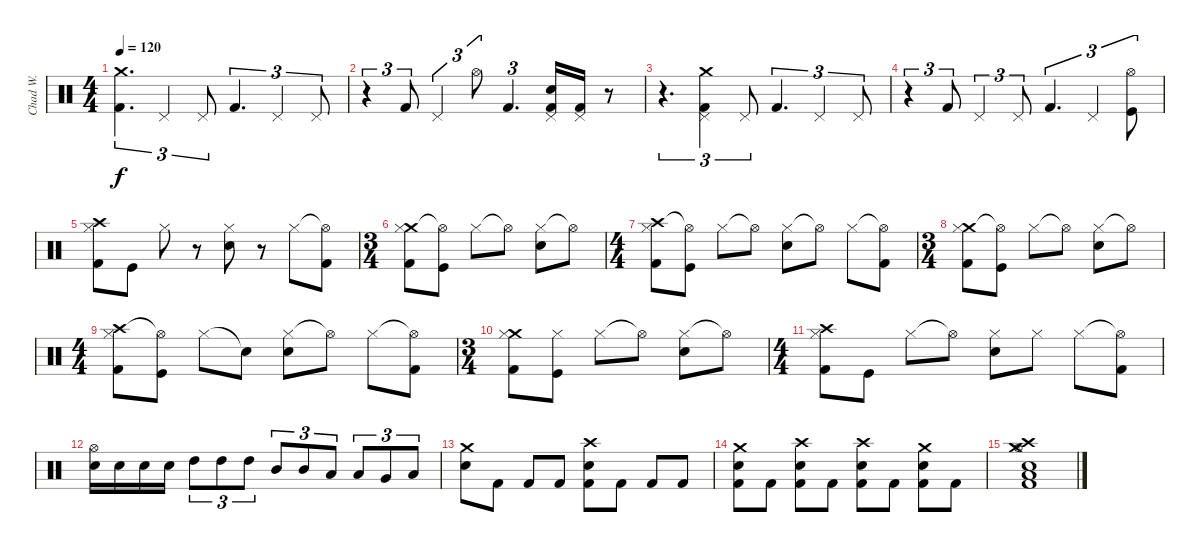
\track ("Chad W." "Chad W.") {instrument percussion bank 177}
\staff {score}
\articulation defaults
\ts (4 4)
\tempo 120
\clef neutral
\ks c
("Crash medium (hit)" "Kick (hit) 2").4{d tu (3 2) dy f} "Pedal Hi-Hat (hit)".4{tu (3 2)} "Pedal Hi-Hat (hit)".8{tu (3 2)} "Kick (hit) 2".4{d tu (3 2)} "Pedal Hi-Hat (hit)".4{tu (3 2)} "Pedal Hi-Hat (hit)".8{tu (3 2)} |
r.4{tu (3 2)} "Kick (hit) 2".8{tu (3 2)} "Pedal Hi-Hat (hit)".4{tu (3 2)} "Hi-Hat (open)".8{tu (3 2)} "Kick (hit) 2".4{d tu (3 2)} ("Pedal Hi-Hat (hit)" "Electric Snare (hit)" "Kick (hit) 2").16 ("Pedal Hi-Hat (hit)" "Kick (hit) 2").16 r.8 |
r.4{d tu (3 2)} ("Crash medium (hit)" "Pedal Hi-Hat (hit)" "Kick (hit) 2").4{tu (3 2)} "Pedal Hi-Hat (hit)".8{tu (3 2)} "Kick (hit) 2".4{d tu (3 2)} "Pedal Hi-Hat (hit)".4{tu (3 2)} "Pedal Hi-Hat (hit)".8{tu (3 2)} |
r.4{tu (3 2)} "Kick (hit) 2".8{tu (3 2)} "Pedal Hi-Hat (hit)".4{tu (3 2)} "Pedal Hi-Hat (hit)".8{tu (3 2)} "Kick (hit) 2".4{d tu (3 2)} "Pedal Hi-Hat (hit)".4{tu (3 2)} ("Hi-Hat (open)" "Kick (hit)").8{tu (3 2)} |
("Crash high (hit)" "Hi-Hat (closed)" "Kick (hit) 2").8 "Kick (hit)".8 "Hi-Hat (closed)".8 r.8 ("Hi-Hat (closed)" "Electric Snare (hit)").8 r.8 "Hi-Hat (closed)".8 ("Hi-Hat (open)"{t} "Kick (hit) 2").8 |
\ts (3 4)
("Crash medium (hit)" "Hi-Hat (closed)" "Kick (hit) 2").8 ("Hi-Hat (open)"{t} "Kick (hit)").8 "Hi-Hat (closed)".8 "Hi-Hat (open)"{t}.8 ("Hi-Hat (closed)" "Electric Snare (hit)").8 "Hi-Hat (open)"{t}.8 |
\ts (4 4)
("Crash high (hit)" "Hi-Hat (closed)" "Kick (hit) 2").8 ("Hi-Hat (open)"{t} "Kick (hit)").8 "Hi-Hat (closed)".8 "Hi-Hat (open)"{t}.8 ("Hi-Hat (closed)" "Electric Snare (hit)").8 "Hi-Hat (open)"{t}.8 "Hi-Hat (closed)".8 ("Hi-Hat (open)"{t} "Kick (hit) 2").8 |
\ts (3 4)
("Crash medium (hit)" "Hi-Hat (closed)" "Kick (hit) 2").8 ("Hi-Hat (open)"{t} "Kick (hit)").8 "Hi-Hat (closed)".8 "Hi-Hat (open)"{t}.8 ("Hi-Hat (closed)" "Electric Snare (hit)").8 "Hi-Hat (open)"{t}.8 |
\ts (4 4)
("Crash high (hit)" "Hi-Hat (closed)" "Kick (hit) 2").8 ("Hi-Hat (open)"{t} "Kick (hit)").8 "Hi-Hat (closed)".8 "Snare (hit)"{t}.8 ("Hi-Hat (closed)" "Electric Snare (hit)").8 "Hi-Hat (open)"{t}.8 "Hi-Hat (closed)".8 ("Hi-Hat (open)"{t} "Kick (hit) 2").8 |
\ts (3 4)
("Crash medium (hit)" "Hi-Hat (closed)" "Kick (hit) 2").8 ("Hi-Hat (closed)" "Kick (hit)").8 "Hi-Hat (closed)".8 "Hi-Hat (open)"{t}.8 ("Hi-Hat (closed)" "Electric Snare (hit)").8 "Hi-Hat (open)"{t}.8 |
\ts (4 4)
("Crash high (hit)" "Hi-Hat (closed)" "Kick (hit) 2").8 "Kick (hit)".8 "Hi-Hat (closed)".8 "Hi-Hat (open)"{t}.8 ("Hi-Hat (closed)" "Electric Snare (hit)").8 "Hi-Hat (closed)".8 "Hi-Hat (closed)".8 ("Hi-Hat (open)"{t} "Kick (hit) 2").8 |
("Hi-Hat (open)" "Electric Snare (hit)").16 "Electric Snare (hit)".16 "Electric Snare (hit)".16 "Electric Snare (hit)".16 "High Tom (hit)".8{tu (3 2)} "High Tom (hit)".8{tu (3 2)} "High Tom (hit)".8{tu (3 2)} "Mid Tom (hit)".8{tu (3 2)} "Mid Tom (hit)".8{tu (3 2)} "Low Tom (hit)".8{tu (3 2)} "Low Tom (hit)".8{tu (3 2)} "Very Low Tom (hit)".8{tu (3 2)} "Low Floor Tom (hit)".8{tu (3 2)} |
("Crash medium (hit)" "Electric Snare (hit)").8 "Kick (hit) 2".8 "Kick (hit) 2".8 "Kick (hit) 2".8 ("Crash high (hit)" "Electric Snare (hit)" "Kick (hit) 2").8 "Kick (hit) 2".8 "Kick (hit) 2".8 "Kick (hit) 2".8 |
("Crash medium (hit)" "Electric Snare (hit)" "Kick (hit) 2").8 "Kick (hit) 2".8 ("Crash high (hit)" "Electric Snare (hit)" "Kick (hit) 2").8 "Kick (hit) 2".8 ("Crash high (hit)" "Electric Snare (hit)" "Kick (hit) 2").8 "Kick (hit) 2".8 ("Crash medium (hit)" "Electric Snare (hit)" "Kick (hit) 2").8 "Kick (hit) 2".8 |
("Crash high (hit)" "Crash medium (hit)" "Hi-Hat (open)" "Electric Snare (hit)" "Low Floor Tom (hit)" "Kick (hit) 2").1
